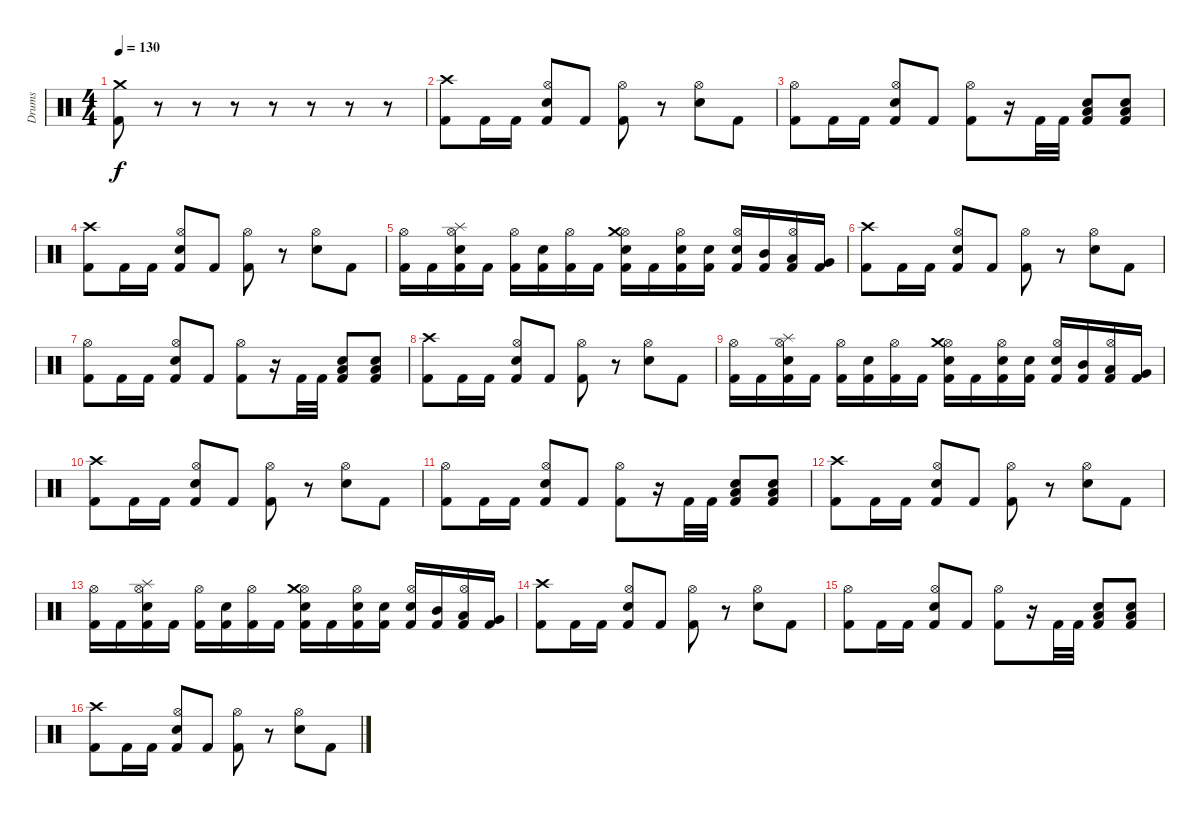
\track ("Drums" "Drums") {instrument percussion}
\staff {score}
\articulation defaults
\ts (4 4)
\tempo 130
\clef neutral
\ks c
("Crash medium (hit)" "Kick (hit) 2").8{dy f} r.8 r.8 r.8 r.8 r.8 r.8 r.8 |
("Crash high (hit)" "Kick (hit) 2").8 "Kick (hit) 2".16 "Kick (hit) 2".16 ("Hi-Hat (open)" "Electric Snare (hit)" "Kick (hit) 2").8 "Kick (hit) 2".8 ("Hi-Hat (open)" "Kick (hit) 2").8 r.8 ("Hi-Hat (open)" "Electric Snare (hit)").8 "Kick (hit) 2".8 |
("Hi-Hat (open)" "Kick (hit) 2").8 "Kick (hit) 2".16 "Kick (hit) 2".16 ("Hi-Hat (open)" "Electric Snare (hit)" "Kick (hit) 2").8 "Kick (hit) 2".8 ("Hi-Hat (open)" "Kick (hit) 2").8 r.16 "Kick (hit) 2".32 "Kick (hit) 2".32 ("Kick (hit) 2" "Low Floor Tom (hit)" "Electric Snare (hit)").8 ("Kick (hit) 2" "Low Floor Tom (hit)" "Electric Snare (hit)").8 |
("Crash high (hit)" "Kick (hit) 2").8 "Kick (hit) 2".16 "Kick (hit) 2".16 ("Hi-Hat (open)" "Electric Snare (hit)" "Kick (hit) 2").8 "Kick (hit) 2".8 ("Hi-Hat (open)" "Kick (hit) 2").8 r.8 ("Hi-Hat (open)" "Electric Snare (hit)").8 "Kick (hit) 2".8 |
("Hi-Hat (open)" "Kick (hit) 2").16 "Kick (hit) 2".16 ("Hi-Hat (open)" "Electric Snare (hit)" "Splash (hit)" "Kick (hit) 2").16 "Kick (hit) 2".16 ("Hi-Hat (open)" "Kick (hit) 2").16 ("Electric Snare (hit)" "Kick (hit) 2").16 ("Hi-Hat (open)" "Kick (hit) 2").16 "Kick (hit) 2".16 ("Hi-Hat (open)" "Electric Snare (hit)" "Crash medium (hit)" "Kick (hit) 2").16 "Kick (hit) 2".16 ("Hi-Hat (open)" "Electric Snare (hit)" "Kick (hit) 2").16 ("Electric Snare (hit)" "Kick (hit) 2").16 ("Hi-Hat (open)" "Electric Snare (hit)" "Kick (hit) 2").16 ("Mid Tom (hit)" "Kick (hit) 2").16 ("Hi-Hat (open)" "Low Tom (hit)" "Kick (hit) 2").16 ("Very Low Tom (hit)" "Kick (hit) 2").16 |
("Crash high (hit)" "Kick (hit) 2").8 "Kick (hit) 2".16 "Kick (hit) 2".16 ("Hi-Hat (open)" "Electric Snare (hit)" "Kick (hit) 2").8 "Kick (hit) 2".8 ("Hi-Hat (open)" "Kick (hit) 2").8 r.8 ("Hi-Hat (open)" "Electric Snare (hit)").8 "Kick (hit) 2".8 |
("Hi-Hat (open)" "Kick (hit) 2").8 "Kick (hit) 2".16 "Kick (hit) 2".16 ("Hi-Hat (open)" "Electric Snare (hit)" "Kick (hit) 2").8 "Kick (hit) 2".8 ("Hi-Hat (open)" "Kick (hit) 2").8 r.16 "Kick (hit) 2".32 "Kick (hit) 2".32 ("Kick (hit) 2" "Low Floor Tom (hit)" "Electric Snare (hit)").8 ("Kick (hit) 2" "Low Floor Tom (hit)" "Electric Snare (hit)").8 |
("Crash high (hit)" "Kick (hit) 2").8 "Kick (hit) 2".16 "Kick (hit) 2".16 ("Hi-Hat (open)" "Electric Snare (hit)" "Kick (hit) 2").8 "Kick (hit) 2".8 ("Hi-Hat (open)" "Kick (hit) 2").8 r.8 ("Hi-Hat (open)" "Electric Snare (hit)").8 "Kick (hit) 2".8 |
("Hi-Hat (open)" "Kick (hit) 2").16 "Kick (hit) 2".16 ("Hi-Hat (open)" "Electric Snare (hit)" "Splash (hit)" "Kick (hit) 2").16 "Kick (hit) 2".16 ("Hi-Hat (open)" "Kick (hit) 2").16 ("Electric Snare (hit)" "Kick (hit) 2").16 ("Hi-Hat (open)" "Kick (hit) 2").16 "Kick (hit) 2".16 ("Hi-Hat (open)" "Electric Snare (hit)" "Crash medium (hit)" "Kick (hit) 2").16 "Kick (hit) 2".16 ("Hi-Hat (open)" "Electric Snare (hit)" "Kick (hit) 2").16 ("Electric Snare (hit)" "Kick (hit) 2").16 ("Hi-Hat (open)" "Electric Snare (hit)" "Kick (hit) 2").16 ("Mid Tom (hit)" "Kick (hit) 2").16 ("Hi-Hat (open)" "Low Tom (hit)" "Kick (hit) 2").16 ("Very Low Tom (hit)" "Kick (hit) 2").16 |
("Crash high (hit)" "Kick (hit) 2").8 "Kick (hit) 2".16 "Kick (hit) 2".16 ("Hi-Hat (open)" "Electric Snare (hit)" "Kick (hit) 2").8 "Kick (hit) 2".8 ("Hi-Hat (open)" "Kick (hit) 2").8 r.8 ("Hi-Hat (open)" "Electric Snare (hit)").8 "Kick (hit) 2".8 |
("Hi-Hat (open)" "Kick (hit) 2").8 "Kick (hit) 2".16 "Kick (hit) 2".16 ("Hi-Hat (open)" "Electric Snare (hit)" "Kick (hit) 2").8 "Kick (hit) 2".8 ("Hi-Hat (open)" "Kick (hit) 2").8 r.16 "Kick (hit) 2".32 "Kick (hit) 2".32 ("Kick (hit) 2" "Low Floor Tom (hit)" "Electric Snare (hit)").8 ("Kick (hit) 2" "Low Floor Tom (hit)" "Electric Snare (hit)").8 |
("Crash high (hit)" "Kick (hit) 2").8 "Kick (hit) 2".16 "Kick (hit) 2".16 ("Hi-Hat (open)" "Electric Snare (hit)" "Kick (hit) 2").8 "Kick (hit) 2".8 ("Hi-Hat (open)" "Kick (hit) 2").8 r.8 ("Hi-Hat (open)" "Electric Snare (hit)").8 "Kick (hit) 2".8 |
("Hi-Hat (open)" "Kick (hit) 2").16 "Kick (hit) 2".16 ("Hi-Hat (open)" "Electric Snare (hit)" "Splash (hit)" "Kick (hit) 2").16 "Kick (hit) 2".16 ("Hi-Hat (open)" "Kick (hit) 2").16 ("Electric Snare (hit)" "Kick (hit) 2").16 ("Hi-Hat (open)" "Kick (hit) 2").16 "Kick (hit) 2".16 ("Hi-Hat (open)" "Electric Snare (hit)" "Crash medium (hit)" "Kick (hit) 2").16 "Kick (hit) 2".16 ("Hi-Hat (open)" "Electric Snare (hit)" "Kick (hit) 2").16 ("Electric Snare (hit)" "Kick (hit) 2").16 ("Hi-Hat (open)" "Electric Snare (hit)" "Kick (hit) 2").16 ("Mid Tom (hit)" "Kick (hit) 2").16 ("Hi-Hat (open)" "Low Tom (hit)" "Kick (hit) 2").16 ("Very Low Tom (hit)" "Kick (hit) 2").16 |
("Crash high (hit)" "Kick (hit) 2").8 "Kick (hit) 2".16 "Kick (hit) 2".16 ("Hi-Hat (open)" "Electric Snare (hit)" "Kick (hit) 2").8 "Kick (hit) 2".8 ("Hi-Hat (open)" "Kick (hit) 2").8 r.8 ("Hi-Hat (open)" "Electric Snare (hit)").8 "Kick (hit) 2".8 |
("Hi-Hat (open)" "Kick (hit) 2").8 "Kick (hit) 2".16 "Kick (hit) 2".16 ("Hi-Hat (open)" "Electric Snare (hit)" "Kick (hit) 2").8 "Kick (hit) 2".8 ("Hi-Hat (open)" "Kick (hit) 2").8 r.16 "Kick (hit) 2".32 "Kick (hit) 2".32 ("Kick (hit) 2" "Low Floor Tom (hit)" "Electric Snare (hit)").8 ("Kick (hit) 2" "Low Floor Tom (hit)" "Electric Snare (hit)").8 |
("Crash high (hit)" "Kick (hit) 2").8 "Kick (hit) 2".16 "Kick (hit) 2".16 ("Hi-Hat (open)" "Electric Snare (hit)" "Kick (hit) 2").8 "Kick (hit) 2".8 ("Hi-Hat (open)" "Kick (hit) 2").8 r.8 ("Hi-Hat (open)" "Electric Snare (hit)").8 "Kick (hit) 2".8
